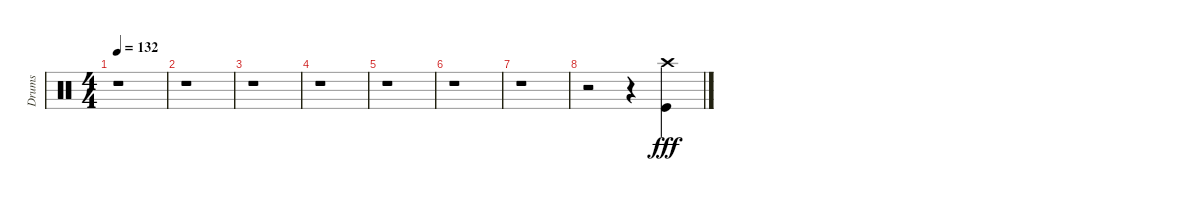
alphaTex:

\track ("Drums" "Drums") {instrument percussion}
\staff {score}
\articulation defaults
\ts (4 4)
\tempo 132
\clef neutral
\ks c
r.1{dy fff} |
r.1 |
r.1 |
r.1 |
r.1 |
r.1 |
r.1 |
r.2 r.4 ("Crash high (hit)" "Kick (hit)").4
